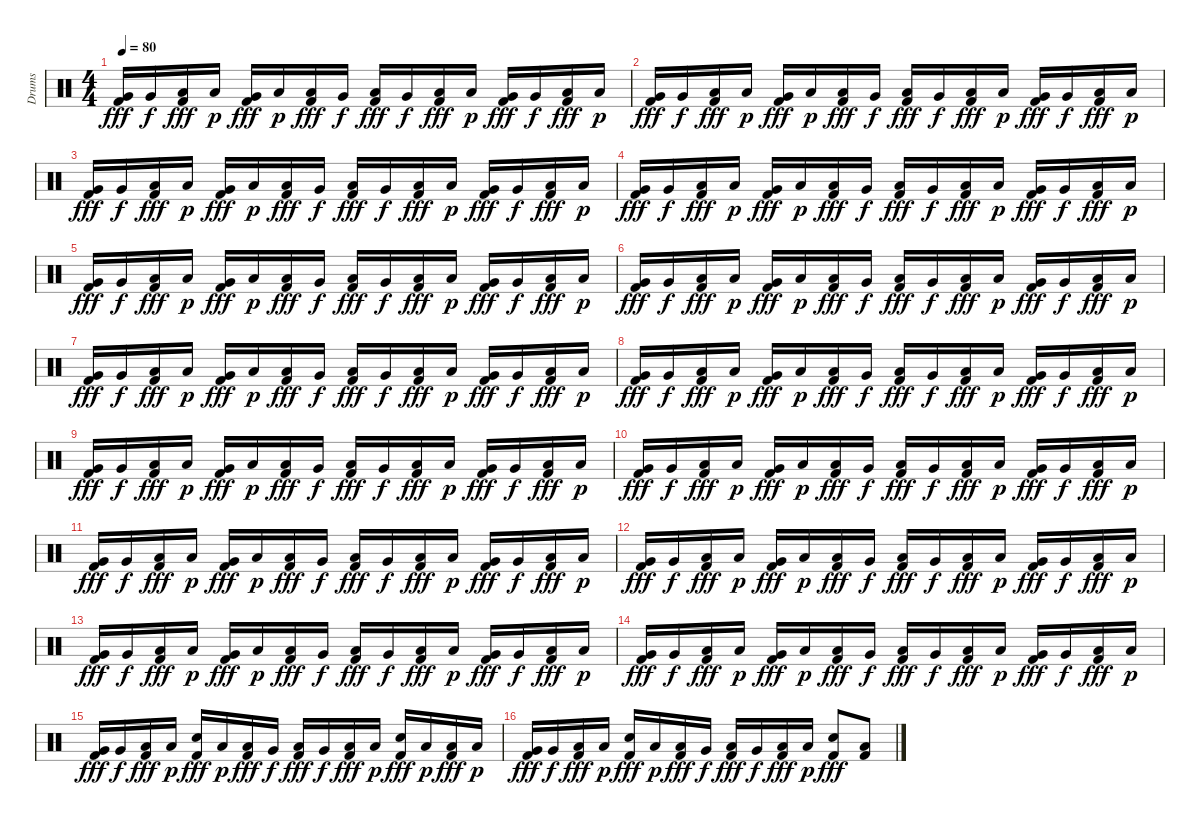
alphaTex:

\track ("Drums" "Drums") {instrument percussion}
\staff {score}
\articulation defaults
\ts (4 4)
\tempo 80
\clef neutral
\ks c
("Very Low Tom (hit)" "Kick (hit) 2").16{dy fff} "Very Low Tom (hit)".16{dy f} ("Low Floor Tom (hit)" "Kick (hit) 2").16{dy fff} "Low Floor Tom (hit)".16{dy p} ("Very Low Tom (hit)" "Kick (hit) 2").16{dy fff} "Low Floor Tom (hit)".16{dy p} ("Low Floor Tom (hit)" "Kick (hit) 2").16{dy fff} "Very Low Tom (hit)".16{dy f} ("Low Floor Tom (hit)" "Kick (hit) 2").16{dy fff} "Very Low Tom (hit)".16{dy f} ("Low Floor Tom (hit)" "Kick (hit) 2").16{dy fff} "Low Floor Tom (hit)".16{dy p} ("Very Low Tom (hit)" "Kick (hit) 2").16{dy fff} "Very Low Tom (hit)".16{dy f} ("Low Floor Tom (hit)" "Kick (hit) 2").16{dy fff} "Low Floor Tom (hit)".16{dy p} |
("Very Low Tom (hit)" "Kick (hit) 2").16{dy fff} "Very Low Tom (hit)".16{dy f} ("Low Floor Tom (hit)" "Kick (hit) 2").16{dy fff} "Low Floor Tom (hit)".16{dy p} ("Very Low Tom (hit)" "Kick (hit) 2").16{dy fff} "Low Floor Tom (hit)".16{dy p} ("Low Floor Tom (hit)" "Kick (hit) 2").16{dy fff} "Very Low Tom (hit)".16{dy f} ("Low Floor Tom (hit)" "Kick (hit) 2").16{dy fff} "Very Low Tom (hit)".16{dy f} ("Low Floor Tom (hit)" "Kick (hit) 2").16{dy fff} "Low Floor Tom (hit)".16{dy p} ("Very Low Tom (hit)" "Kick (hit) 2").16{dy fff} "Very Low Tom (hit)".16{dy f} ("Low Floor Tom (hit)" "Kick (hit) 2").16{dy fff} "Low Floor Tom (hit)".16{dy p} |
("Very Low Tom (hit)" "Kick (hit) 2").16{dy fff} "Very Low Tom (hit)".16{dy f} ("Low Floor Tom (hit)" "Kick (hit) 2").16{dy fff} "Low Floor Tom (hit)".16{dy p} ("Very Low Tom (hit)" "Kick (hit) 2").16{dy fff} "Low Floor Tom (hit)".16{dy p} ("Low Floor Tom (hit)" "Kick (hit) 2").16{dy fff} "Very Low Tom (hit)".16{dy f} ("Low Floor Tom (hit)" "Kick (hit) 2").16{dy fff} "Very Low Tom (hit)".16{dy f} ("Low Floor Tom (hit)" "Kick (hit) 2").16{dy fff} "Low Floor Tom (hit)".16{dy p} ("Very Low Tom (hit)" "Kick (hit) 2").16{dy fff} "Very Low Tom (hit)".16{dy f} ("Low Floor Tom (hit)" "Kick (hit) 2").16{dy fff} "Low Floor Tom (hit)".16{dy p} |
("Very Low Tom (hit)" "Kick (hit) 2").16{dy fff} "Very Low Tom (hit)".16{dy f} ("Low Floor Tom (hit)" "Kick (hit) 2").16{dy fff} "Low Floor Tom (hit)".16{dy p} ("Very Low Tom (hit)" "Kick (hit) 2").16{dy fff} "Low Floor Tom (hit)".16{dy p} ("Low Floor Tom (hit)" "Kick (hit) 2").16{dy fff} "Very Low Tom (hit)".16{dy f} ("Low Floor Tom (hit)" "Kick (hit) 2").16{dy fff} "Very Low Tom (hit)".16{dy f} ("Low Floor Tom (hit)" "Kick (hit) 2").16{dy fff} "Low Floor Tom (hit)".16{dy p} ("Very Low Tom (hit)" "Kick (hit) 2").16{dy fff} "Very Low Tom (hit)".16{dy f} ("Low Floor Tom (hit)" "Kick (hit) 2").16{dy fff} "Low Floor Tom (hit)".16{dy p} |
("Very Low Tom (hit)" "Kick (hit) 2").16{dy fff} "Very Low Tom (hit)".16{dy f} ("Low Floor Tom (hit)" "Kick (hit) 2").16{dy fff} "Low Floor Tom (hit)".16{dy p} ("Very Low Tom (hit)" "Kick (hit) 2").16{dy fff} "Low Floor Tom (hit)".16{dy p} ("Low Floor Tom (hit)" "Kick (hit) 2").16{dy fff} "Very Low Tom (hit)".16{dy f} ("Low Floor Tom (hit)" "Kick (hit) 2").16{dy fff} "Very Low Tom (hit)".16{dy f} ("Low Floor Tom (hit)" "Kick (hit) 2").16{dy fff} "Low Floor Tom (hit)".16{dy p} ("Very Low Tom (hit)" "Kick (hit) 2").16{dy fff} "Very Low Tom (hit)".16{dy f} ("Low Floor Tom (hit)" "Kick (hit) 2").16{dy fff} "Low Floor Tom (hit)".16{dy p} |
("Very Low Tom (hit)" "Kick (hit) 2").16{dy fff} "Very Low Tom (hit)".16{dy f} ("Low Floor Tom (hit)" "Kick (hit) 2").16{dy fff} "Low Floor Tom (hit)".16{dy p} ("Very Low Tom (hit)" "Kick (hit) 2").16{dy fff} "Low Floor Tom (hit)".16{dy p} ("Low Floor Tom (hit)" "Kick (hit) 2").16{dy fff} "Very Low Tom (hit)".16{dy f} ("Low Floor Tom (hit)" "Kick (hit) 2").16{dy fff} "Very Low Tom (hit)".16{dy f} ("Low Floor Tom (hit)" "Kick (hit) 2").16{dy fff} "Low Floor Tom (hit)".16{dy p} ("Very Low Tom (hit)" "Kick (hit) 2").16{dy fff} "Very Low Tom (hit)".16{dy f} ("Low Floor Tom (hit)" "Kick (hit) 2").16{dy fff} "Low Floor Tom (hit)".16{dy p} |
("Very Low Tom (hit)" "Kick (hit) 2").16{dy fff} "Very Low Tom (hit)".16{dy f} ("Low Floor Tom (hit)" "Kick (hit) 2").16{dy fff} "Low Floor Tom (hit)".16{dy p} ("Very Low Tom (hit)" "Kick (hit) 2").16{dy fff} "Low Floor Tom (hit)".16{dy p} ("Low Floor Tom (hit)" "Kick (hit) 2").16{dy fff} "Very Low Tom (hit)".16{dy f} ("Low Floor Tom (hit)" "Kick (hit) 2").16{dy fff} "Very Low Tom (hit)".16{dy f} ("Low Floor Tom (hit)" "Kick (hit) 2").16{dy fff} "Low Floor Tom (hit)".16{dy p} ("Very Low Tom (hit)" "Kick (hit) 2").16{dy fff} "Very Low Tom (hit)".16{dy f} ("Low Floor Tom (hit)" "Kick (hit) 2").16{dy fff} "Low Floor Tom (hit)".16{dy p} |
("Very Low Tom (hit)" "Kick (hit) 2").16{dy fff} "Very Low Tom (hit)".16{dy f} ("Low Floor Tom (hit)" "Kick (hit) 2").16{dy fff} "Low Floor Tom (hit)".16{dy p} ("Very Low Tom (hit)" "Kick (hit) 2").16{dy fff} "Low Floor Tom (hit)".16{dy p} ("Low Floor Tom (hit)" "Kick (hit) 2").16{dy fff} "Very Low Tom (hit)".16{dy f} ("Low Floor Tom (hit)" "Kick (hit) 2").16{dy fff} "Very Low Tom (hit)".16{dy f} ("Low Floor Tom (hit)" "Kick (hit) 2").16{dy fff} "Low Floor Tom (hit)".16{dy p} ("Very Low Tom (hit)" "Kick (hit) 2").16{dy fff} "Very Low Tom (hit)".16{dy f} ("Low Floor Tom (hit)" "Kick (hit) 2").16{dy fff} "Low Floor Tom (hit)".16{dy p} |
("Very Low Tom (hit)" "Kick (hit) 2").16{dy fff} "Very Low Tom (hit)".16{dy f} ("Low Floor Tom (hit)" "Kick (hit) 2").16{dy fff} "Low Floor Tom (hit)".16{dy p} ("Very Low Tom (hit)" "Kick (hit) 2").16{dy fff} "Low Floor Tom (hit)".16{dy p} ("Low Floor Tom (hit)" "Kick (hit) 2").16{dy fff} "Very Low Tom (hit)".16{dy f} ("Low Floor Tom (hit)" "Kick (hit) 2").16{dy fff} "Very Low Tom (hit)".16{dy f} ("Low Floor Tom (hit)" "Kick (hit) 2").16{dy fff} "Low Floor Tom (hit)".16{dy p} ("Very Low Tom (hit)" "Kick (hit) 2").16{dy fff} "Very Low Tom (hit)".16{dy f} ("Low Floor Tom (hit)" "Kick (hit) 2").16{dy fff} "Low Floor Tom (hit)".16{dy p} |
("Very Low Tom (hit)" "Kick (hit) 2").16{dy fff} "Very Low Tom (hit)".16{dy f} ("Low Floor Tom (hit)" "Kick (hit) 2").16{dy fff} "Low Floor Tom (hit)".16{dy p} ("Very Low Tom (hit)" "Kick (hit) 2").16{dy fff} "Low Floor Tom (hit)".16{dy p} ("Low Floor Tom (hit)" "Kick (hit) 2").16{dy fff} "Very Low Tom (hit)".16{dy f} ("Low Floor Tom (hit)" "Kick (hit) 2").16{dy fff} "Very Low Tom (hit)".16{dy f} ("Low Floor Tom (hit)" "Kick (hit) 2").16{dy fff} "Low Floor Tom (hit)".16{dy p} ("Very Low Tom (hit)" "Kick (hit) 2").16{dy fff} "Very Low Tom (hit)".16{dy f} ("Low Floor Tom (hit)" "Kick (hit) 2").16{dy fff} "Low Floor Tom (hit)".16{dy p} |
("Very Low Tom (hit)" "Kick (hit) 2").16{dy fff} "Very Low Tom (hit)".16{dy f} ("Low Floor Tom (hit)" "Kick (hit) 2").16{dy fff} "Low Floor Tom (hit)".16{dy p} ("Very Low Tom (hit)" "Kick (hit) 2").16{dy fff} "Low Floor Tom (hit)".16{dy p} ("Low Floor Tom (hit)" "Kick (hit) 2").16{dy fff} "Very Low Tom (hit)".16{dy f} ("Low Floor Tom (hit)" "Kick (hit) 2").16{dy fff} "Very Low Tom (hit)".16{dy f} ("Low Floor Tom (hit)" "Kick (hit) 2").16{dy fff} "Low Floor Tom (hit)".16{dy p} ("Very Low Tom (hit)" "Kick (hit) 2").16{dy fff} "Very Low Tom (hit)".16{dy f} ("Low Floor Tom (hit)" "Kick (hit) 2").16{dy fff} "Low Floor Tom (hit)".16{dy p} |
("Very Low Tom (hit)" "Kick (hit) 2").16{dy fff} "Very Low Tom (hit)".16{dy f} ("Low Floor Tom (hit)" "Kick (hit) 2").16{dy fff} "Low Floor Tom (hit)".16{dy p} ("Very Low Tom (hit)" "Kick (hit) 2").16{dy fff} "Low Floor Tom (hit)".16{dy p} ("Low Floor Tom (hit)" "Kick (hit) 2").16{dy fff} "Very Low Tom (hit)".16{dy f} ("Low Floor Tom (hit)" "Kick (hit) 2").16{dy fff} "Very Low Tom (hit)".16{dy f} ("Low Floor Tom (hit)" "Kick (hit) 2").16{dy fff} "Low Floor Tom (hit)".16{dy p} ("Very Low Tom (hit)" "Kick (hit) 2").16{dy fff} "Very Low Tom (hit)".16{dy f} ("Low Floor Tom (hit)" "Kick (hit) 2").16{dy fff} "Low Floor Tom (hit)".16{dy p} |
("Very Low Tom (hit)" "Kick (hit) 2").16{dy fff} "Very Low Tom (hit)".16{dy f} ("Low Floor Tom (hit)" "Kick (hit) 2").16{dy fff} "Low Floor Tom (hit)".16{dy p} ("Very Low Tom (hit)" "Kick (hit) 2").16{dy fff} "Low Floor Tom (hit)".16{dy p} ("Low Floor Tom (hit)" "Kick (hit) 2").16{dy fff} "Very Low Tom (hit)".16{dy f} ("Low Floor Tom (hit)" "Kick (hit) 2").16{dy fff} "Very Low Tom (hit)".16{dy f} ("Low Floor Tom (hit)" "Kick (hit) 2").16{dy fff} "Low Floor Tom (hit)".16{dy p} ("Very Low Tom (hit)" "Kick (hit) 2").16{dy fff} "Very Low Tom (hit)".16{dy f} ("Low Floor Tom (hit)" "Kick (hit) 2").16{dy fff} "Low Floor Tom (hit)".16{dy p} |
("Very Low Tom (hit)" "Kick (hit) 2").16{dy fff} "Very Low Tom (hit)".16{dy f} ("Low Floor Tom (hit)" "Kick (hit) 2").16{dy fff} "Low Floor Tom (hit)".16{dy p} ("Very Low Tom (hit)" "Kick (hit) 2").16{dy fff} "Low Floor Tom (hit)".16{dy p} ("Low Floor Tom (hit)" "Kick (hit) 2").16{dy fff} "Very Low Tom (hit)".16{dy f} ("Low Floor Tom (hit)" "Kick (hit) 2").16{dy fff} "Very Low Tom (hit)".16{dy f} ("Low Floor Tom (hit)" "Kick (hit) 2").16{dy fff} "Low Floor Tom (hit)".16{dy p} ("Very Low Tom (hit)" "Kick (hit) 2").16{dy fff} "Very Low Tom (hit)".16{dy f} ("Low Floor Tom (hit)" "Kick (hit) 2").16{dy fff} "Low Floor Tom (hit)".16{dy p} |
("Very Low Tom (hit)" "Kick (hit) 2").16{dy fff} "Very Low Tom (hit)".16{dy f} ("Low Floor Tom (hit)" "Kick (hit) 2").16{dy fff} "Low Floor Tom (hit)".16{dy p} ("Snare (hit) 2" "Kick (hit) 2").16{dy fff} "Low Floor Tom (hit)".16{dy p} ("Low Floor Tom (hit)" "Kick (hit) 2").16{dy fff} "Very Low Tom (hit)".16{dy f} ("Low Floor Tom (hit)" "Kick (hit) 2").16{dy fff} "Very Low Tom (hit)".16{dy f} ("Low Floor Tom (hit)" "Kick (hit) 2").16{dy fff} "Low Floor Tom (hit)".16{dy p} ("Snare (hit) 2" "Kick (hit) 2").16{dy fff} "Low Floor Tom (hit)".16{dy p} ("Low Floor Tom (hit)" "Kick (hit) 2").16{dy fff} "Low Floor Tom (hit)".16{dy p} |
("Very Low Tom (hit)" "Kick (hit) 2").16{dy fff} "Very Low Tom (hit)".16{dy f} ("Low Floor Tom (hit)" "Kick (hit) 2").16{dy fff} "Low Floor Tom (hit)".16{dy p} ("Snare (hit) 2" "Kick (hit) 2").16{dy fff} "Low Floor Tom (hit)".16{dy p} ("Low Floor Tom (hit)" "Kick (hit) 2").16{dy fff} "Very Low Tom (hit)".16{dy f} ("Low Floor Tom (hit)" "Kick (hit) 2").16{dy fff} "Very Low Tom (hit)".16{dy f} ("Low Floor Tom (hit)" "Kick (hit) 2").16{dy fff} "Low Floor Tom (hit)".16{dy p} ("Snare (hit) 2" "Kick (hit) 2").8{dy fff} ("Low Floor Tom (hit)" "Kick (hit) 2").8
